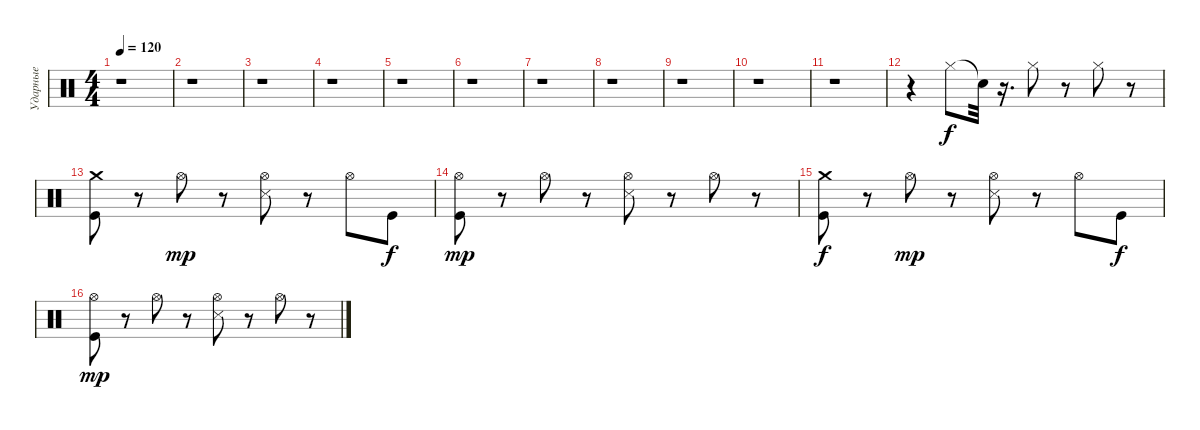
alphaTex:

\track ("Ударные" "Ударные") {instrument percussion}
\staff {score}
\articulation defaults
\ts (4 4)
\tempo 120
\clef neutral
\ks c
r.1{dy f} |
r.1 |
r.1 |
r.1 |
r.1 |
r.1 |
r.1 |
r.1 |
r.1 |
r.1 |
r.1 |
r.4 "Hi-Hat (closed)".8 "Snare (hit)"{t}.32 r.16{d} "Hi-Hat (closed)".8 r.8 "Hi-Hat (closed)".8 r.8 |
("Kick (hit)" "Crash medium (hit)").8 r.8 "Hi-Hat (open)".8{dy mp} r.8 ("Snare (side stick) 3" "Hi-Hat (open)").8 r.8 "Hi-Hat (open)".8 "Kick (hit)".8{dy f} |
("Kick (hit)" "Hi-Hat (open)").8{dy mp} r.8 "Hi-Hat (open)".8 r.8 ("Snare (side stick) 3" "Hi-Hat (open)").8 r.8 "Hi-Hat (open)".8 r.8 |
("Crash medium (hit)" "Kick (hit)").8{dy f} r.8 "Hi-Hat (open)".8{dy mp} r.8 ("Snare (side stick) 3" "Hi-Hat (open)").8 r.8 "Hi-Hat (open)".8 "Kick (hit)".8{dy f} |
("Kick (hit)" "Hi-Hat (open)").8{dy mp} r.8 "Hi-Hat (open)".8 r.8 ("Snare (side stick) 3" "Hi-Hat (open)").8 r.8 "Hi-Hat (open)".8 r.8
